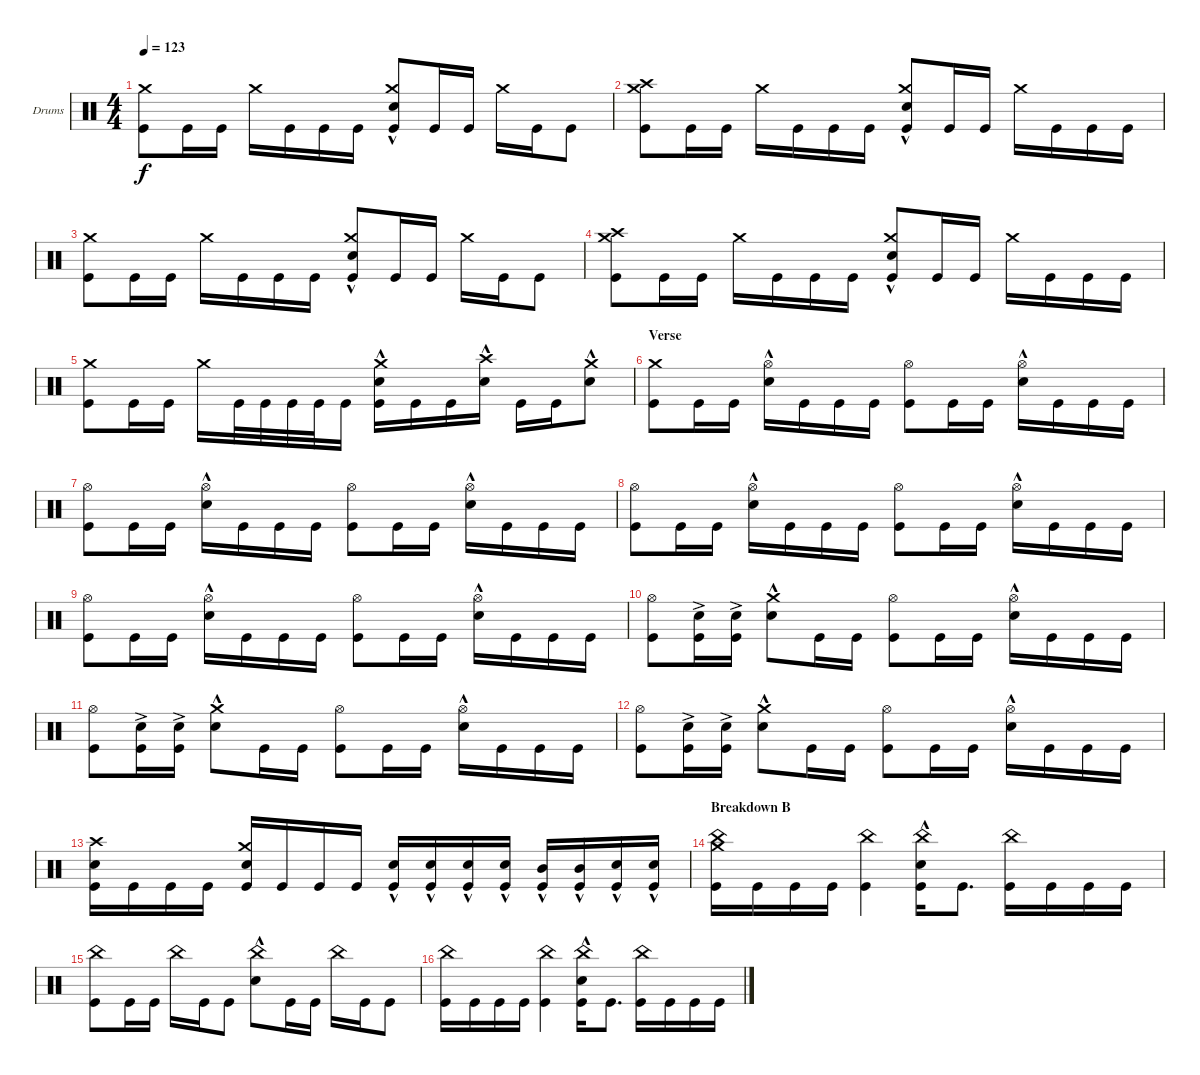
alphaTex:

\bracketExtendMode groupsimilarinstruments
\firstSystemTrackNameOrientation horizontal
\otherSystemsTrackNameOrientation horizontal
\track ("Drumkit" "Drums") {instrument percussion}
\staff {score}
\articulation defaults
\ts (4 4)
\tempo 123
\clef neutral
\ks aminor
("Kick (hit)" "Crash medium (hit)").8{dy f} "Kick (hit)".16 "Kick (hit)".16 "Crash medium (hit)".16 "Kick (hit)".16 "Kick (hit)".16 "Kick (hit)".16 ("Kick (hit)" "Crash medium (hit)" "Snare (hit) 2"{hac}).8 "Kick (hit)".16 "Kick (hit)".16 "Crash medium (hit)".16 "Kick (hit)".16 "Kick (hit)".8 |
("Kick (hit)" "Crash medium (hit)" "Crash high (hit)").8 "Kick (hit)".16 "Kick (hit)".16 "Crash medium (hit)".16 "Kick (hit)".16 "Kick (hit)".16 "Kick (hit)".16 ("Kick (hit)" "Crash medium (hit)" "Snare (hit) 2"{hac}).8 "Kick (hit)".16 "Kick (hit)".16 "Crash medium (hit)".16 "Kick (hit)".16 "Kick (hit)".16 "Kick (hit)".16 |
("Kick (hit)" "Crash medium (hit)").8 "Kick (hit)".16 "Kick (hit)".16 "Crash medium (hit)".16 "Kick (hit)".16 "Kick (hit)".16 "Kick (hit)".16 ("Kick (hit)" "Crash medium (hit)" "Snare (hit) 2"{hac}).8 "Kick (hit)".16 "Kick (hit)".16 "Crash medium (hit)".16 "Kick (hit)".16 "Kick (hit)".8 |
("Kick (hit)" "Crash medium (hit)" "Crash high (hit)").8 "Kick (hit)".16 "Kick (hit)".16 "Crash medium (hit)".16 "Kick (hit)".16 "Kick (hit)".16 "Kick (hit)".16 ("Kick (hit)" "Crash medium (hit)" "Snare (hit) 2"{hac}).8 "Kick (hit)".16 "Kick (hit)".16 "Crash medium (hit)".16 "Kick (hit)".16 "Kick (hit)".16 "Kick (hit)".16 |
("Kick (hit)" "Crash medium (hit)").8 "Kick (hit)".16 "Kick (hit)".16 "Crash medium (hit)".16 "Kick (hit)".32 "Kick (hit)".32 "Kick (hit)".32 "Kick (hit)".32 "Kick (hit)".16 ("Kick (hit)" "Crash medium (hit)" "Snare (hit) 2"{hac}).16 "Kick (hit)".16 "Kick (hit)".16 ("Snare (hit) 2"{hac} "Crash high (hit)").16 "Kick (hit)".16 "Kick (hit)".16 ("Snare (hit) 2"{hac} "Crash medium (hit)").8 |
\section ("" "Verse")
("Kick (hit)" "Crash medium (hit)").8 "Kick (hit)".16 "Kick (hit)".16 ("Hi-Hat (open)" "Snare (hit) 2"{hac}).16 "Kick (hit)".16 "Kick (hit)".16 "Kick (hit)".16 ("Kick (hit)" "Hi-Hat (open)").8 "Kick (hit)".16 "Kick (hit)".16 ("Hi-Hat (open)" "Snare (hit) 2"{hac}).16 "Kick (hit)".16 "Kick (hit)".16 "Kick (hit)".16 |
("Kick (hit)" "Hi-Hat (open)").8 "Kick (hit)".16 "Kick (hit)".16 ("Hi-Hat (open)" "Snare (hit) 2"{hac}).16 "Kick (hit)".16 "Kick (hit)".16 "Kick (hit)".16 ("Kick (hit)" "Hi-Hat (open)").8 "Kick (hit)".16 "Kick (hit)".16 ("Hi-Hat (open)" "Snare (hit) 2"{hac}).16 "Kick (hit)".16 "Kick (hit)".16 "Kick (hit)".16 |
("Kick (hit)" "Hi-Hat (open)").8 "Kick (hit)".16 "Kick (hit)".16 ("Hi-Hat (open)" "Snare (hit) 2"{hac}).16 "Kick (hit)".16 "Kick (hit)".16 "Kick (hit)".16 ("Kick (hit)" "Hi-Hat (open)").8 "Kick (hit)".16 "Kick (hit)".16 ("Hi-Hat (open)" "Snare (hit) 2"{hac}).16 "Kick (hit)".16 "Kick (hit)".16 "Kick (hit)".16 |
("Kick (hit)" "Hi-Hat (open)").8 "Kick (hit)".16 "Kick (hit)".16 ("Hi-Hat (open)" "Snare (hit) 2"{hac}).16 "Kick (hit)".16 "Kick (hit)".16 "Kick (hit)".16 ("Kick (hit)" "Hi-Hat (open)").8 "Kick (hit)".16 "Kick (hit)".16 ("Hi-Hat (open)" "Snare (hit) 2"{hac}).16 "Kick (hit)".16 "Kick (hit)".16 "Kick (hit)".16 |
("Kick (hit)" "Hi-Hat (open)").8 ("Kick (hit)" "Snare (hit) 2"{ac}).16 ("Kick (hit)" "Snare (hit) 2"{ac}).16 ("Snare (hit) 2"{hac} "Crash medium (hit)").8 "Kick (hit)".16 "Kick (hit)".16 ("Kick (hit)" "Hi-Hat (open)").8 "Kick (hit)".16 "Kick (hit)".16 ("Hi-Hat (open)" "Snare (hit) 2"{hac}).16 "Kick (hit)".16 "Kick (hit)".16 "Kick (hit)".16 |
("Kick (hit)" "Hi-Hat (open)").8 ("Kick (hit)" "Snare (hit) 2"{ac}).16 ("Kick (hit)" "Snare (hit) 2"{ac}).16 ("Snare (hit) 2"{hac} "Crash medium (hit)").8 "Kick (hit)".16 "Kick (hit)".16 ("Kick (hit)" "Hi-Hat (open)").8 "Kick (hit)".16 "Kick (hit)".16 ("Hi-Hat (open)" "Snare (hit) 2"{hac}).16 "Kick (hit)".16 "Kick (hit)".16 "Kick (hit)".16 |
("Kick (hit)" "Hi-Hat (open)").8 ("Kick (hit)" "Snare (hit) 2"{ac}).16 ("Kick (hit)" "Snare (hit) 2"{ac}).16 ("Snare (hit) 2"{hac} "Crash medium (hit)").8 "Kick (hit)".16 "Kick (hit)".16 ("Kick (hit)" "Hi-Hat (open)").8 "Kick (hit)".16 "Kick (hit)".16 ("Hi-Hat (open)" "Snare (hit) 2"{hac}).16 "Kick (hit)".16 "Kick (hit)".16 "Kick (hit)".16 |
("Kick (hit)" "Snare (hit) 2" "Crash high (hit)").16 "Kick (hit)".16 "Kick (hit)".16 "Kick (hit)".16 ("Kick (hit)" "Snare (hit) 2" "Crash medium (hit)").16 "Kick (hit)".16 "Kick (hit)".16 "Kick (hit)".16 ("Kick (hit)" "Snare (hit) 2"{hac}).16 ("Kick (hit)" "Snare (hit) 2"{hac}).16 ("Kick (hit)" "Snare (hit) 2"{hac}).16 ("Kick (hit)" "Snare (hit) 2"{hac}).16 ("Kick (hit)" "Mid Tom (hit)"{hac}).16 ("Kick (hit)" "Mid Tom (hit)"{hac}).16 ("Kick (hit)" "Snare (hit) 2"{hac}).16 ("Kick (hit)" "Snare (hit) 2"{hac}).16 |
\section ("" "Breakdown B")
("Crash medium (hit)" "Kick (hit)" "China (hit)").16 "Kick (hit)".16 "Kick (hit)".16 "Kick (hit)".16 ("Kick (hit)" "China (hit)").4 ("Kick (hit)" "China (hit)" "Snare (hit) 2"{hac}).16 "Kick (hit)".8{d} ("Kick (hit)" "China (hit)").16 "Kick (hit)".16 "Kick (hit)".16 "Kick (hit)".16 |
("Kick (hit)" "China (hit)").8 "Kick (hit)".16 "Kick (hit)".16 "China (hit)".16 "Kick (hit)".16 "Kick (hit)".8 ("Snare (hit) 2"{hac} "China (hit)").8 "Kick (hit)".16 "Kick (hit)".16 "China (hit)".16 "Kick (hit)".16 "Kick (hit)".8 |
("Kick (hit)" "China (hit)").16 "Kick (hit)".16 "Kick (hit)".16 "Kick (hit)".16 ("Kick (hit)" "China (hit)").4 ("Kick (hit)" "China (hit)" "Snare (hit) 2"{hac}).16 "Kick (hit)".8{d} ("Kick (hit)" "China (hit)").16 "Kick (hit)".16 "Kick (hit)".16 "Kick (hit)".16
